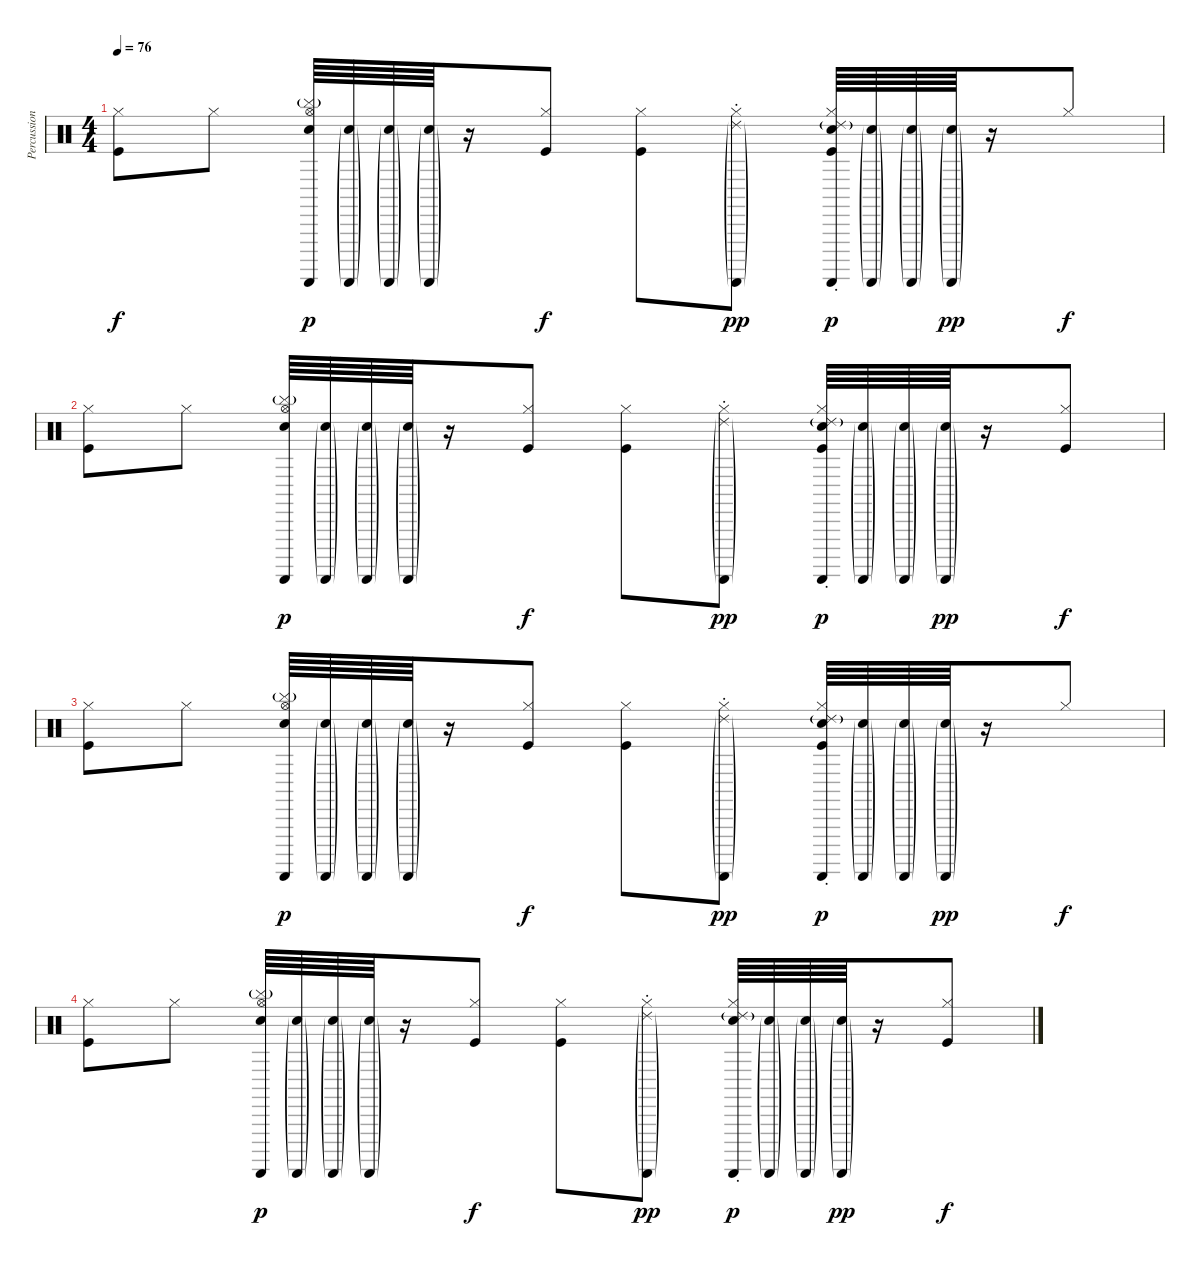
\track ("Percussion" "Percussion") {instrument percussion}
\staff {score}
\articulation defaults
\ts (4 4)
\tempo 76
\clef neutral
\ks c
("Hi-Hat (closed)" "Kick (hit)").8{dy f} "Hi-Hat (closed)".8 ("Hi-Hat (open)" "Cymbal (hit)"{g} "Snare (hit) 2" "Guiro (scrap-return)").64{dy p} ("Snare (hit) 2"{g} "Guiro (scrap-return)"{g}).64 ("Snare (hit) 2"{g} "Guiro (scrap-return)"{g}).64 ("Snare (hit) 2"{g} "Guiro (scrap-return)"{g}).64 r.16 ("Hi-Hat (closed)" "Kick (hit)").8{dy f} ("Hi-Hat (closed)" "Kick (hit)").8 ("Hi-Hat (closed)" "Ride (choke) 2"{g} "Guiro (scrap-return)"{g}).8{dy pp} ("Hi-Hat (closed)" "Ride (choke) 2"{g} "Snare (hit) 2" "Guiro (scrap-return)" "Kick (hit)").64{dy p} ("Snare (hit) 2"{g} "Guiro (scrap-return)"{g}).64 ("Snare (hit) 2"{g} "Guiro (scrap-return)"{g}).64 ("Snare (hit) 2"{g} "Guiro (scrap-return)"{g}).64{dy pp} r.16 "Hi-Hat (closed)".8{dy f} |
("Hi-Hat (closed)" "Kick (hit)").8 "Hi-Hat (closed)".8 ("Hi-Hat (open)" "Cymbal (hit)"{g} "Snare (hit) 2" "Guiro (scrap-return)").64{dy p} ("Snare (hit) 2"{g} "Guiro (scrap-return)"{g}).64 ("Snare (hit) 2"{g} "Guiro (scrap-return)"{g}).64 ("Snare (hit) 2"{g} "Guiro (scrap-return)"{g}).64 r.16 ("Hi-Hat (closed)" "Kick (hit)").8{dy f} ("Hi-Hat (closed)" "Kick (hit)").8 ("Hi-Hat (closed)" "Ride (choke) 2"{g} "Guiro (scrap-return)"{g}).8{dy pp} ("Hi-Hat (closed)" "Ride (choke) 2"{g} "Snare (hit) 2" "Guiro (scrap-return)" "Kick (hit)").64{dy p} ("Snare (hit) 2"{g} "Guiro (scrap-return)"{g}).64 ("Snare (hit) 2"{g} "Guiro (scrap-return)"{g}).64 ("Snare (hit) 2"{g} "Guiro (scrap-return)"{g}).64{dy pp} r.16 ("Hi-Hat (closed)" "Kick (hit)").8{dy f} |
("Hi-Hat (closed)" "Kick (hit)"{pm}).8 "Hi-Hat (closed)".8 ("Hi-Hat (open)" "Cymbal (hit)"{g} "Snare (hit) 2" "Guiro (scrap-return)").64{dy p} ("Snare (hit) 2"{g} "Guiro (scrap-return)"{g}).64 ("Snare (hit) 2"{g} "Guiro (scrap-return)"{g}).64 ("Snare (hit) 2"{g} "Guiro (scrap-return)"{g}).64 r.16 ("Hi-Hat (closed)" "Kick (hit)").8{dy f} ("Hi-Hat (closed)" "Kick (hit)").8 ("Hi-Hat (closed)" "Ride (choke) 2"{g} "Guiro (scrap-return)"{g}).8{dy pp} ("Hi-Hat (closed)" "Ride (choke) 2"{g} "Snare (hit) 2" "Guiro (scrap-return)" "Kick (hit)").64{dy p} ("Snare (hit) 2"{g} "Guiro (scrap-return)"{g}).64 ("Snare (hit) 2"{g} "Guiro (scrap-return)"{g}).64 ("Snare (hit) 2"{g} "Guiro (scrap-return)"{g}).64{dy pp} r.16 "Hi-Hat (closed)".8{dy f} |
("Hi-Hat (closed)" "Kick (hit)").8 "Hi-Hat (closed)".8 ("Hi-Hat (open)" "Cymbal (hit)"{g} "Snare (hit) 2" "Guiro (scrap-return)").64{dy p} ("Snare (hit) 2"{g} "Guiro (scrap-return)"{g}).64 ("Snare (hit) 2"{g} "Guiro (scrap-return)"{g}).64 ("Snare (hit) 2"{g} "Guiro (scrap-return)"{g}).64 r.16 ("Hi-Hat (closed)" "Kick (hit)").8{dy f} ("Hi-Hat (closed)" "Kick (hit)").8 ("Hi-Hat (closed)" "Ride (choke) 2"{g} "Guiro (scrap-return)"{g}).8{dy pp} ("Hi-Hat (closed)" "Ride (choke) 2"{g} "Snare (hit) 2" "Guiro (scrap-return)").64{dy p} ("Snare (hit) 2"{g} "Guiro (scrap-return)"{g}).64 ("Snare (hit) 2"{g} "Guiro (scrap-return)"{g}).64 ("Snare (hit) 2"{g} "Guiro (scrap-return)"{g}).64{dy pp} r.16 ("Hi-Hat (closed)" "Kick (hit)").8{dy f}
